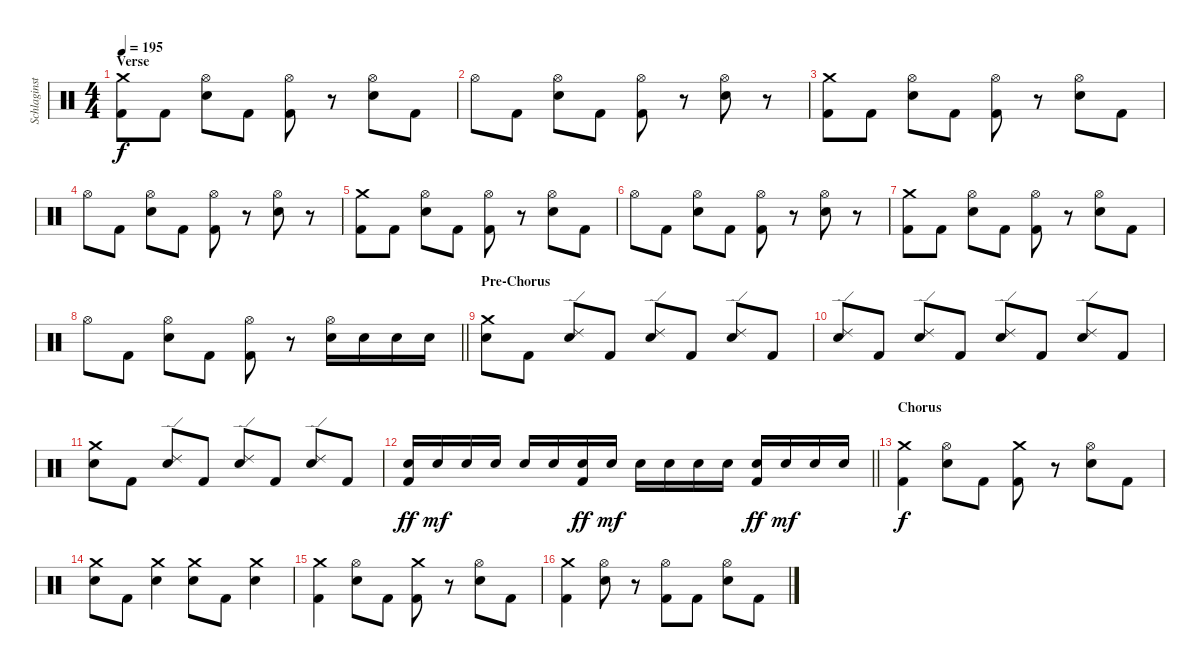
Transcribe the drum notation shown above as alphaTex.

\track ("Schlaginstrumente - Auswahl" "Schlaginst") {instrument percussion}
\staff {score}
\articulation defaults
\ts (4 4)
\section ("" "Verse")
\tempo 195
\clef neutral
\ks c
("Crash medium (hit)" "Kick (hit) 2").8{dy f} "Kick (hit) 2".8 ("Hi-Hat (open)" "Snare (hit) 2").8 "Kick (hit) 2".8 ("Hi-Hat (open)" "Kick (hit) 2").8 r.8 ("Hi-Hat (open)" "Snare (hit) 2").8 "Kick (hit) 2".8 |
"Hi-Hat (open)".8 "Kick (hit) 2".8 ("Hi-Hat (open)" "Snare (hit) 2").8 "Kick (hit) 2".8 ("Hi-Hat (open)" "Kick (hit) 2").8 r.8 ("Hi-Hat (open)" "Snare (hit) 2").8 r.8 |
("Crash medium (hit)" "Kick (hit) 2").8 "Kick (hit) 2".8 ("Hi-Hat (open)" "Snare (hit) 2").8 "Kick (hit) 2".8 ("Hi-Hat (open)" "Kick (hit) 2").8 r.8 ("Hi-Hat (open)" "Snare (hit) 2").8 "Kick (hit) 2".8 |
"Hi-Hat (open)".8 "Kick (hit) 2".8 ("Hi-Hat (open)" "Snare (hit) 2").8 "Kick (hit) 2".8 ("Hi-Hat (open)" "Kick (hit) 2").8 r.8 ("Hi-Hat (open)" "Snare (hit) 2").8 r.8 |
("Crash medium (hit)" "Kick (hit) 2").8 "Kick (hit) 2".8 ("Hi-Hat (open)" "Snare (hit) 2").8 "Kick (hit) 2".8 ("Hi-Hat (open)" "Kick (hit) 2").8 r.8 ("Hi-Hat (open)" "Snare (hit) 2").8 "Kick (hit) 2".8 |
"Hi-Hat (open)".8 "Kick (hit) 2".8 ("Hi-Hat (open)" "Snare (hit) 2").8 "Kick (hit) 2".8 ("Hi-Hat (open)" "Kick (hit) 2").8 r.8 ("Hi-Hat (open)" "Snare (hit) 2").8 r.8 |
("Crash medium (hit)" "Kick (hit) 2").8 "Kick (hit) 2".8 ("Hi-Hat (open)" "Snare (hit) 2").8 "Kick (hit) 2".8 ("Hi-Hat (open)" "Kick (hit) 2").8 r.8 ("Hi-Hat (open)" "Snare (hit) 2").8 "Kick (hit) 2".8 |
\barLineRight lightlight "Hi-Hat (open)".8 "Kick (hit) 2".8
("Hi-Hat (open)" "Snare (hit) 2").8 "Kick (hit) 2".8 ("Hi-Hat (open)" "Kick (hit) 2").8 r.8 ("Hi-Hat (open)" "Snare (hit) 2").16 "Snare (hit) 2".16 "Snare (hit) 2".16 "Snare (hit) 2".16 |
\section ("" "Pre-Chorus")
("Crash medium (hit)" "Snare (hit) 2").8 "Kick (hit) 2".8 ("Ride (edge) 2" "Snare (hit) 2").8 "Kick (hit) 2".8 ("Ride (edge) 2" "Snare (hit) 2").8 "Kick (hit) 2".8 ("Ride (edge) 2" "Snare (hit) 2").8 "Kick (hit) 2".8 |
("Ride (edge) 2" "Snare (hit) 2").8 "Kick (hit) 2".8 ("Ride (edge) 2" "Snare (hit) 2").8 "Kick (hit) 2".8 ("Ride (edge) 2" "Snare (hit) 2").8 "Kick (hit) 2".8 ("Ride (edge) 2" "Snare (hit) 2").8 "Kick (hit) 2".8 |
("Crash medium (hit)" "Snare (hit) 2").8 "Kick (hit) 2".8 ("Ride (edge) 2" "Snare (hit) 2").8 "Kick (hit) 2".8 ("Ride (edge) 2" "Snare (hit) 2").8 "Kick (hit) 2".8 ("Ride (edge) 2" "Snare (hit) 2").8 "Kick (hit) 2".8 |
\barLineRight lightlight
("Snare (hit) 2" "Kick (hit) 2").16{dy ff} "Snare (hit) 2".16{dy mf} "Snare (hit) 2".16 "Snare (hit) 2".16 "Snare (hit) 2".16 "Snare (hit) 2".16 ("Snare (hit) 2" "Kick (hit) 2").16{dy ff} "Snare (hit) 2".16{dy mf} "Snare (hit) 2".16 "Snare (hit) 2".16 "Snare (hit) 2".16 "Snare (hit) 2".16 ("Snare (hit) 2" "Kick (hit) 2").16{dy ff} "Snare (hit) 2".16{dy mf} "Snare (hit) 2".16 "Snare (hit) 2".16 |
\section ("" "Chorus")
("Crash medium (hit)" "Kick (hit) 2").4{dy f} ("Hi-Hat (open)" "Snare (hit) 2").8 "Kick (hit) 2".8 ("Crash medium (hit)" "Kick (hit) 2").8 r.8 ("Hi-Hat (open)" "Snare (hit) 2").8 "Kick (hit) 2".8 |
("Crash medium (hit)" "Snare (hit) 2").8 "Kick (hit) 2".8 ("Crash medium (hit)" "Snare (hit) 2").4 ("Crash medium (hit)" "Snare (hit) 2").8 "Kick (hit) 2".8 ("Crash medium (hit)" "Snare (hit) 2").4 |
("Crash medium (hit)" "Kick (hit) 2").4 ("Hi-Hat (open)" "Snare (hit) 2").8 "Kick (hit) 2".8 ("Crash medium (hit)" "Kick (hit) 2").8 r.8 ("Hi-Hat (open)" "Snare (hit) 2").8 "Kick (hit) 2".8 |
("Crash medium (hit)" "Kick (hit) 2").4 ("Hi-Hat (open)" "Snare (hit) 2").8 r.8 ("Hi-Hat (open)" "Kick (hit) 2").8 "Kick (hit) 2".8 ("Hi-Hat (open)" "Snare (hit) 2").8 "Kick (hit) 2".8
